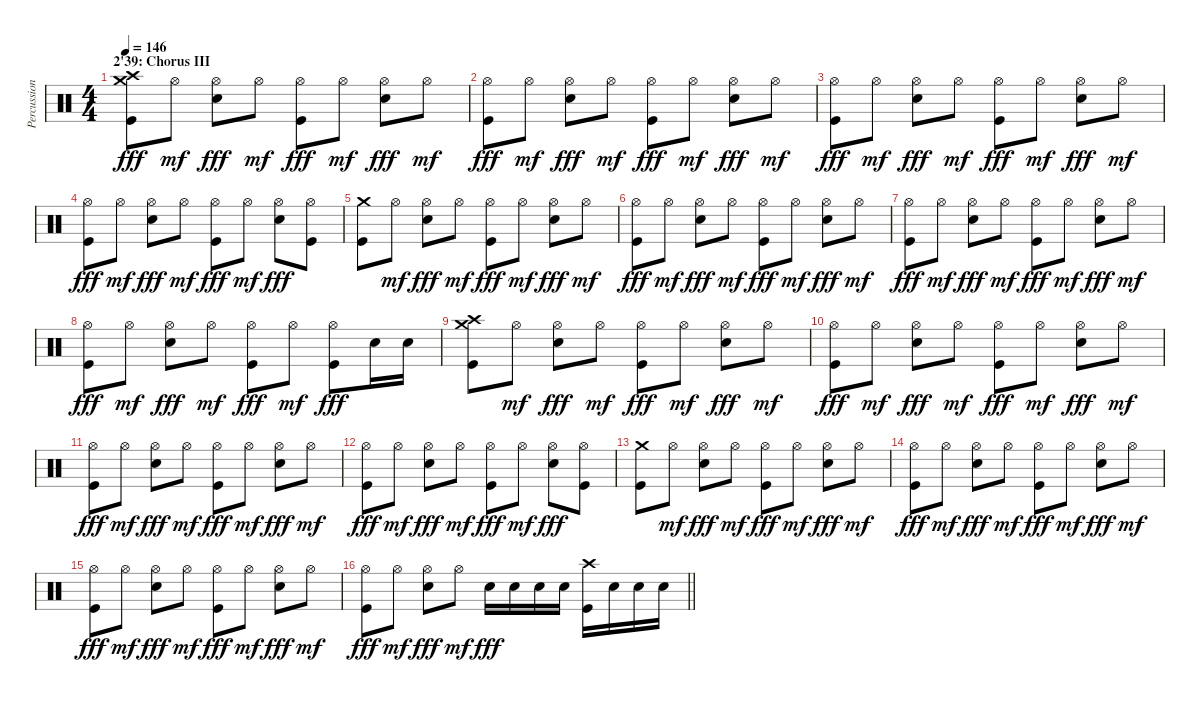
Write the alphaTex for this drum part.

\track ("Percussions" "Percussion") {instrument percussion}
\staff {score}
\articulation defaults
\ts (4 4)
\section ("" "2'39: Chorus III")
\tempo 146
\clef neutral
\ks c
("Crash high (hit)" "Crash medium (hit)" "Kick (hit)").8{dy fff} "Hi-Hat (open)".8{dy mf} ("Hi-Hat (open)" "Snare (hit) 2").8{dy fff} "Hi-Hat (open)".8{dy mf} ("Hi-Hat (open)" "Kick (hit)").8{dy fff} "Hi-Hat (open)".8{dy mf} ("Hi-Hat (open)" "Snare (hit) 2").8{dy fff} "Hi-Hat (open)".8{dy mf} |
("Hi-Hat (open)" "Kick (hit)").8{dy fff} "Hi-Hat (open)".8{dy mf} ("Hi-Hat (open)" "Snare (hit) 2").8{dy fff} "Hi-Hat (open)".8{dy mf} ("Hi-Hat (open)" "Kick (hit)").8{dy fff} "Hi-Hat (open)".8{dy mf} ("Hi-Hat (open)" "Snare (hit) 2").8{dy fff} "Hi-Hat (open)".8{dy mf} |
("Hi-Hat (open)" "Kick (hit)").8{dy fff} "Hi-Hat (open)".8{dy mf} ("Hi-Hat (open)" "Snare (hit) 2").8{dy fff} "Hi-Hat (open)".8{dy mf} ("Hi-Hat (open)" "Kick (hit)").8{dy fff} "Hi-Hat (open)".8{dy mf} ("Hi-Hat (open)" "Snare (hit) 2").8{dy fff} "Hi-Hat (open)".8{dy mf} |
("Hi-Hat (open)" "Kick (hit)").8{dy fff} "Hi-Hat (open)".8{dy mf} ("Hi-Hat (open)" "Snare (hit) 2").8{dy fff} "Hi-Hat (open)".8{dy mf} ("Hi-Hat (open)" "Kick (hit)").8{dy fff} "Hi-Hat (open)".8{dy mf} ("Hi-Hat (open)" "Snare (hit) 2").8{dy fff} ("Hi-Hat (open)" "Kick (hit)").8 |
("Crash medium (hit)" "Kick (hit)").8 "Hi-Hat (open)".8{dy mf} ("Hi-Hat (open)" "Snare (hit) 2").8{dy fff} "Hi-Hat (open)".8{dy mf} ("Hi-Hat (open)" "Kick (hit)").8{dy fff} "Hi-Hat (open)".8{dy mf} ("Hi-Hat (open)" "Snare (hit) 2").8{dy fff} "Hi-Hat (open)".8{dy mf} |
("Hi-Hat (open)" "Kick (hit)").8{dy fff} "Hi-Hat (open)".8{dy mf} ("Hi-Hat (open)" "Snare (hit) 2").8{dy fff} "Hi-Hat (open)".8{dy mf} ("Hi-Hat (open)" "Kick (hit)").8{dy fff} "Hi-Hat (open)".8{dy mf} ("Hi-Hat (open)" "Snare (hit) 2").8{dy fff} "Hi-Hat (open)".8{dy mf} |
("Hi-Hat (open)" "Kick (hit)").8{dy fff} "Hi-Hat (open)".8{dy mf} ("Hi-Hat (open)" "Snare (hit) 2").8{dy fff} "Hi-Hat (open)".8{dy mf} ("Hi-Hat (open)" "Kick (hit)").8{dy fff} "Hi-Hat (open)".8{dy mf} ("Hi-Hat (open)" "Snare (hit) 2").8{dy fff} "Hi-Hat (open)".8{dy mf} |
("Hi-Hat (open)" "Kick (hit)").8{dy fff} "Hi-Hat (open)".8{dy mf} ("Hi-Hat (open)" "Snare (hit) 2").8{dy fff} "Hi-Hat (open)".8{dy mf} ("Hi-Hat (open)" "Kick (hit)").8{dy fff} "Hi-Hat (open)".8{dy mf} ("Hi-Hat (open)" "Kick (hit)").8{dy fff} "Snare (hit) 2".16 "Snare (hit) 2".16 |
("Crash high (hit)" "Crash medium (hit)" "Kick (hit)").8 "Hi-Hat (open)".8{dy mf} ("Hi-Hat (open)" "Snare (hit) 2").8{dy fff} "Hi-Hat (open)".8{dy mf} ("Hi-Hat (open)" "Kick (hit)").8{dy fff} "Hi-Hat (open)".8{dy mf} ("Hi-Hat (open)" "Snare (hit) 2").8{dy fff} "Hi-Hat (open)".8{dy mf} |
("Hi-Hat (open)" "Kick (hit)").8{dy fff} "Hi-Hat (open)".8{dy mf} ("Hi-Hat (open)" "Snare (hit) 2").8{dy fff} "Hi-Hat (open)".8{dy mf} ("Hi-Hat (open)" "Kick (hit)").8{dy fff} "Hi-Hat (open)".8{dy mf} ("Hi-Hat (open)" "Snare (hit) 2").8{dy fff} "Hi-Hat (open)".8{dy mf} |
("Hi-Hat (open)" "Kick (hit)").8{dy fff} "Hi-Hat (open)".8{dy mf} ("Hi-Hat (open)" "Snare (hit) 2").8{dy fff} "Hi-Hat (open)".8{dy mf} ("Hi-Hat (open)" "Kick (hit)").8{dy fff} "Hi-Hat (open)".8{dy mf} ("Hi-Hat (open)" "Snare (hit) 2").8{dy fff} "Hi-Hat (open)".8{dy mf} |
("Hi-Hat (open)" "Kick (hit)").8{dy fff} "Hi-Hat (open)".8{dy mf} ("Hi-Hat (open)" "Snare (hit) 2").8{dy fff} "Hi-Hat (open)".8{dy mf} ("Hi-Hat (open)" "Kick (hit)").8{dy fff} "Hi-Hat (open)".8{dy mf} ("Hi-Hat (open)" "Snare (hit) 2").8{dy fff} ("Hi-Hat (open)" "Kick (hit)").8 |
("Crash medium (hit)" "Kick (hit)").8 "Hi-Hat (open)".8{dy mf} ("Hi-Hat (open)" "Snare (hit) 2").8{dy fff} "Hi-Hat (open)".8{dy mf} ("Hi-Hat (open)" "Kick (hit)").8{dy fff} "Hi-Hat (open)".8{dy mf} ("Hi-Hat (open)" "Snare (hit) 2").8{dy fff} "Hi-Hat (open)".8{dy mf} |
("Hi-Hat (open)" "Kick (hit)").8{dy fff} "Hi-Hat (open)".8{dy mf} ("Hi-Hat (open)" "Snare (hit) 2").8{dy fff} "Hi-Hat (open)".8{dy mf} ("Hi-Hat (open)" "Kick (hit)").8{dy fff} "Hi-Hat (open)".8{dy mf} ("Hi-Hat (open)" "Snare (hit) 2").8{dy fff} "Hi-Hat (open)".8{dy mf} |
("Hi-Hat (open)" "Kick (hit)").8{dy fff} "Hi-Hat (open)".8{dy mf} ("Hi-Hat (open)" "Snare (hit) 2").8{dy fff} "Hi-Hat (open)".8{dy mf} ("Hi-Hat (open)" "Kick (hit)").8{dy fff} "Hi-Hat (open)".8{dy mf} ("Hi-Hat (open)" "Snare (hit) 2").8{dy fff} "Hi-Hat (open)".8{dy mf} |
\barLineRight lightlight
("Hi-Hat (open)" "Kick (hit)").8{dy fff} "Hi-Hat (open)".8{dy mf} ("Hi-Hat (open)" "Snare (hit) 2").8{dy fff} "Hi-Hat (open)".8{dy mf} "Snare (hit) 2".16{dy fff} "Snare (hit) 2".16 "Snare (hit) 2".16 "Snare (hit) 2".16 ("Crash high (hit)" "Kick (hit)").16 "Snare (hit) 2".16 "Snare (hit) 2".16 "Snare (hit) 2".16
